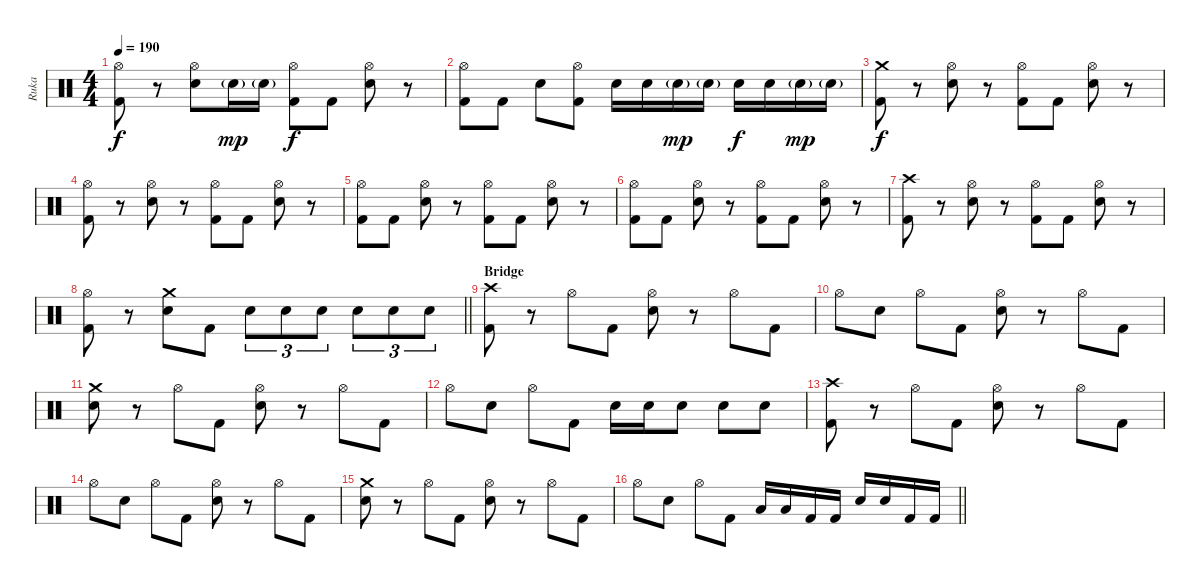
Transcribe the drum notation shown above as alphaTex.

\track ("Ruka " "Ruka ") {instrument percussion}
\staff {score}
\articulation defaults
\ts (4 4)
\tempo 190
\clef neutral
\ks c
("Hi-Hat (open)" "Kick (hit) 2").8{dy f} r.8 ("Hi-Hat (open)" "Electric Snare (hit)").8 "Electric Snare (hit)"{g}.16{dy mp} "Electric Snare (hit)"{g}.16 ("Hi-Hat (open)" "Kick (hit) 2").8{dy f} "Kick (hit) 2".8 ("Hi-Hat (open)" "Electric Snare (hit)").8 r.8 |
("Hi-Hat (open)" "Kick (hit) 2").8 "Kick (hit) 2".8 "Electric Snare (hit)".8 ("Hi-Hat (open)" "Kick (hit) 2").8 "Electric Snare (hit)".16 "Electric Snare (hit)".16 "Electric Snare (hit)"{g}.16{dy mp} "Electric Snare (hit)"{g}.16 "Electric Snare (hit)".16{dy f} "Electric Snare (hit)".16 "Electric Snare (hit)"{g}.16{dy mp} "Electric Snare (hit)"{g}.16 |
("Crash medium (hit)" "Kick (hit) 2").8{dy f} r.8 ("Hi-Hat (open)" "Electric Snare (hit)").8 r.8 ("Hi-Hat (open)" "Kick (hit) 2").8 "Kick (hit) 2".8 ("Hi-Hat (open)" "Electric Snare (hit)").8 r.8 |
("Hi-Hat (open)" "Kick (hit) 2").8 r.8 ("Hi-Hat (open)" "Electric Snare (hit)").8 r.8 ("Hi-Hat (open)" "Kick (hit) 2").8 "Kick (hit) 2".8 ("Hi-Hat (open)" "Electric Snare (hit)").8 r.8 |
("Hi-Hat (open)" "Kick (hit) 2").8 "Kick (hit) 2".8 ("Hi-Hat (open)" "Electric Snare (hit)").8 r.8 ("Hi-Hat (open)" "Kick (hit) 2").8 "Kick (hit) 2".8 ("Hi-Hat (open)" "Electric Snare (hit)").8 r.8 |
("Hi-Hat (open)" "Kick (hit) 2").8 "Kick (hit) 2".8 ("Hi-Hat (open)" "Electric Snare (hit)").8 r.8 ("Hi-Hat (open)" "Kick (hit) 2").8 "Kick (hit) 2".8 ("Hi-Hat (open)" "Electric Snare (hit)").8 r.8 |
("Crash high (hit)" "Kick (hit) 2").8 r.8 ("Hi-Hat (open)" "Electric Snare (hit)").8 r.8 ("Hi-Hat (open)" "Kick (hit) 2").8 "Kick (hit) 2".8 ("Hi-Hat (open)" "Electric Snare (hit)").8 r.8 |
\barLineRight lightlight
("Hi-Hat (open)" "Kick (hit) 2").8 r.8 ("Crash medium (hit)" "Electric Snare (hit)").8 "Kick (hit) 2".8 "Electric Snare (hit)".8{tu (3 2)} "Electric Snare (hit)".8{tu (3 2)} "Electric Snare (hit)".8{tu (3 2)} "Electric Snare (hit)".8{tu (3 2)} "Electric Snare (hit)".8{tu (3 2)} "Electric Snare (hit)".8{tu (3 2)} |
\section ("" "Bridge")
("Crash high (hit)" "Kick (hit) 2").8 r.8 "Hi-Hat (open)".8 "Kick (hit) 2".8 ("Hi-Hat (open)" "Electric Snare (hit)").8 r.8 "Hi-Hat (open)".8 "Kick (hit) 2".8 |
"Hi-Hat (open)".8 "Electric Snare (hit)".8 "Hi-Hat (open)".8 "Kick (hit) 2".8 ("Hi-Hat (open)" "Electric Snare (hit)").8 r.8 "Hi-Hat (open)".8 "Kick (hit) 2".8 |
("Crash medium (hit)" "Electric Snare (hit)").8 r.8 "Hi-Hat (open)".8 "Kick (hit) 2".8 ("Hi-Hat (open)" "Electric Snare (hit)").8 r.8 "Hi-Hat (open)".8 "Kick (hit) 2".8 |
"Hi-Hat (open)".8 "Electric Snare (hit)".8 "Hi-Hat (open)".8 "Kick (hit) 2".8 "Electric Snare (hit)".16 "Electric Snare (hit)".16 "Electric Snare (hit)".8 "Electric Snare (hit)".8 "Electric Snare (hit)".8 |
("Crash high (hit)" "Kick (hit) 2").8 r.8 "Hi-Hat (open)".8 "Kick (hit) 2".8 ("Hi-Hat (open)" "Electric Snare (hit)").8 r.8 "Hi-Hat (open)".8 "Kick (hit) 2".8 |
"Hi-Hat (open)".8 "Electric Snare (hit)".8 "Hi-Hat (open)".8 "Kick (hit) 2".8 ("Hi-Hat (open)" "Electric Snare (hit)").8 r.8 "Hi-Hat (open)".8 "Kick (hit) 2".8 |
("Crash medium (hit)" "Electric Snare (hit)").8 r.8 "Hi-Hat (open)".8 "Kick (hit) 2".8 ("Hi-Hat (open)" "Electric Snare (hit)").8 r.8 "Hi-Hat (open)".8 "Kick (hit) 2".8 |
\barLineRight lightlight "Hi-Hat (open)".8 "Electric Snare (hit)".8 "Hi-Hat (open)".8 "Kick (hit) 2".8 "Low Tom (hit)".16 "Low Tom (hit)".16 "Kick (hit) 2".16 "Kick (hit) 2".16 "Electric Snare (hit)".16 "Electric Snare (hit)".16 "Kick (hit) 2".16 "Kick (hit) 2".16
